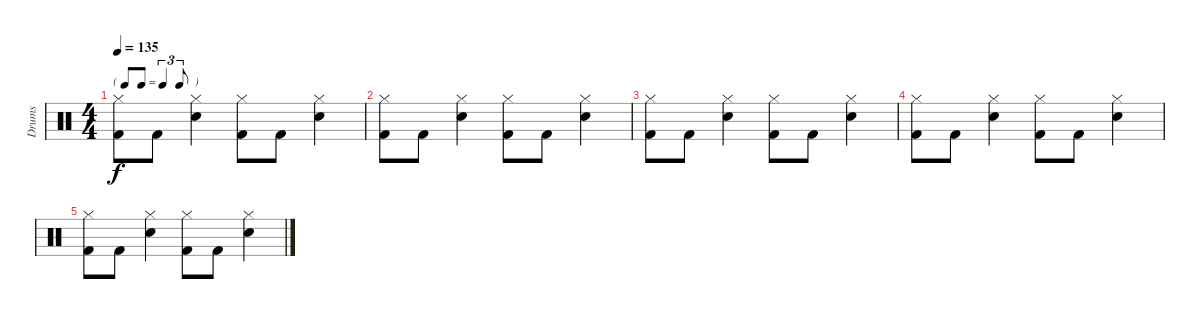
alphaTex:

\track ("Drums" "Drums") {instrument percussion}
\staff {score}
\articulation defaults
\ts (4 4)
\tf triplet8th
\tempo 135
\clef neutral
\ks c
("Hi-Hat (closed)" "Kick (hit) 2").8{dy f} "Kick (hit) 2".8 ("Hi-Hat (closed)" "Snare (hit) 2").4 ("Hi-Hat (closed)" "Kick (hit) 2").8 "Kick (hit) 2".8 ("Hi-Hat (closed)" "Snare (hit) 2").4 |
("Hi-Hat (closed)" "Kick (hit) 2").8 "Kick (hit) 2".8 ("Hi-Hat (closed)" "Snare (hit) 2").4 ("Hi-Hat (closed)" "Kick (hit) 2").8 "Kick (hit) 2".8 ("Hi-Hat (closed)" "Snare (hit) 2").4 |
("Hi-Hat (closed)" "Kick (hit) 2").8 "Kick (hit) 2".8 ("Hi-Hat (closed)" "Snare (hit) 2").4 ("Hi-Hat (closed)" "Kick (hit) 2").8 "Kick (hit) 2".8 ("Hi-Hat (closed)" "Snare (hit) 2").4 |
("Hi-Hat (closed)" "Kick (hit) 2").8 "Kick (hit) 2".8 ("Hi-Hat (closed)" "Snare (hit) 2").4 ("Hi-Hat (closed)" "Kick (hit) 2").8 "Kick (hit) 2".8 ("Hi-Hat (closed)" "Snare (hit) 2").4 |
("Hi-Hat (closed)" "Kick (hit) 2").8 "Kick (hit) 2".8 ("Hi-Hat (closed)" "Snare (hit) 2").4 ("Hi-Hat (closed)" "Kick (hit) 2").8 "Kick (hit) 2".8 ("Hi-Hat (closed)" "Snare (hit) 2").4
